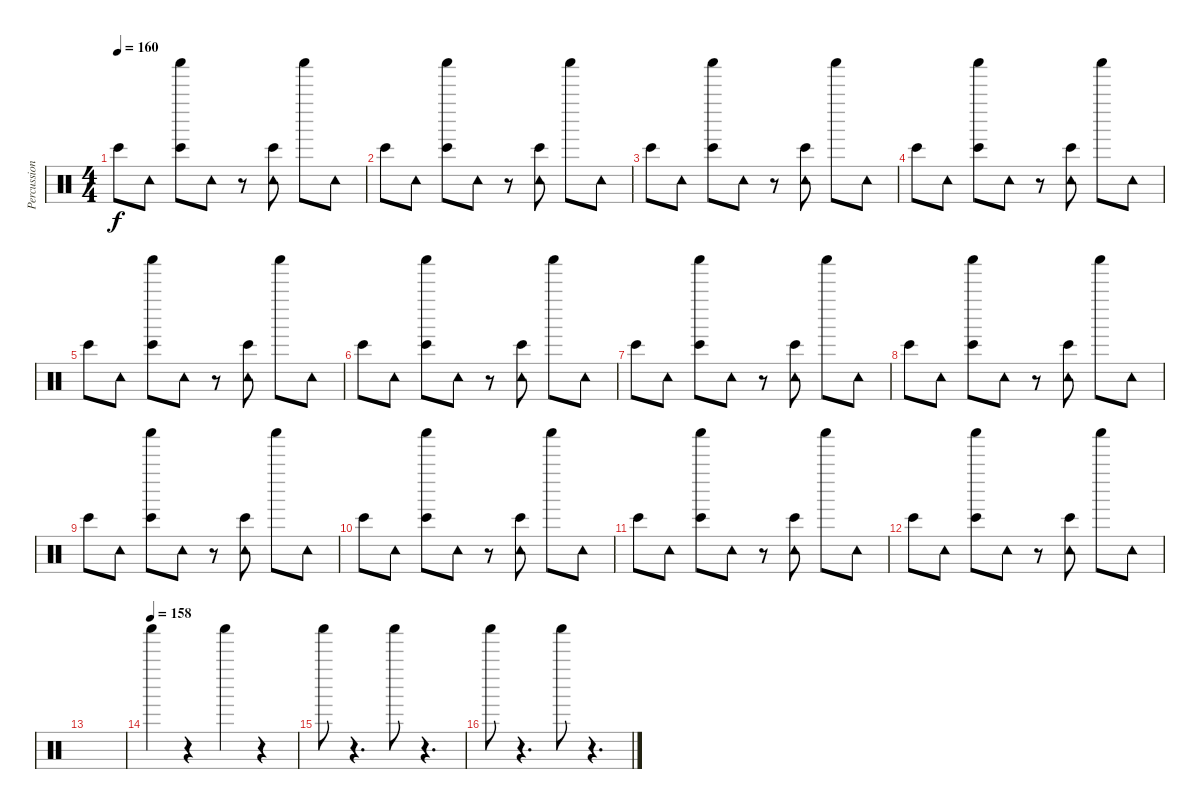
\track ("Percussions" "Percussion") {instrument percussion}
\staff {score}
\articulation defaults
\ts (4 4)
\tempo 160
\clef neutral
\ks c "Bongo High (hit)".8{dy f} "Tambourine (hit)".8
("Bongo High (hit)" "Shaker (hit)").8 "Tambourine (hit)".8 r.8 ("Bongo High (hit)" "Tambourine (hit)").8 "Shaker (hit)".8 "Tambourine (hit)".8 |
"Bongo High (hit)".8 "Tambourine (hit)".8 ("Bongo High (hit)" "Shaker (hit)").8 "Tambourine (hit)".8 r.8 ("Bongo High (hit)" "Tambourine (hit)").8 "Shaker (hit)".8 "Tambourine (hit)".8 |
"Bongo High (hit)".8 "Tambourine (hit)".8 ("Bongo High (hit)" "Shaker (hit)").8 "Tambourine (hit)".8 r.8 ("Bongo High (hit)" "Tambourine (hit)").8 "Shaker (hit)".8 "Tambourine (hit)".8 |
"Bongo High (hit)".8 "Tambourine (hit)".8 ("Bongo High (hit)" "Shaker (hit)").8 "Tambourine (hit)".8 r.8 ("Bongo High (hit)" "Tambourine (hit)").8 "Shaker (hit)".8 "Tambourine (hit)".8 |
"Bongo High (hit)".8 "Tambourine (hit)".8 ("Bongo High (hit)" "Shaker (hit)").8 "Tambourine (hit)".8 r.8 ("Bongo High (hit)" "Tambourine (hit)").8 "Shaker (hit)".8 "Tambourine (hit)".8 |
"Bongo High (hit)".8 "Tambourine (hit)".8 ("Bongo High (hit)" "Shaker (hit)").8 "Tambourine (hit)".8 r.8 ("Bongo High (hit)" "Tambourine (hit)").8 "Shaker (hit)".8 "Tambourine (hit)".8 |
"Bongo High (hit)".8 "Tambourine (hit)".8 ("Bongo High (hit)" "Shaker (hit)").8 "Tambourine (hit)".8 r.8 ("Bongo High (hit)" "Tambourine (hit)").8 "Shaker (hit)".8 "Tambourine (hit)".8 |
"Bongo High (hit)".8 "Tambourine (hit)".8 ("Bongo High (hit)" "Shaker (hit)").8 "Tambourine (hit)".8 r.8 ("Bongo High (hit)" "Tambourine (hit)").8 "Shaker (hit)".8 "Tambourine (hit)".8 |
"Bongo High (hit)".8 "Tambourine (hit)".8 ("Bongo High (hit)" "Shaker (hit)").8 "Tambourine (hit)".8 r.8 ("Bongo High (hit)" "Tambourine (hit)").8 "Shaker (hit)".8 "Tambourine (hit)".8 |
"Bongo High (hit)".8 "Tambourine (hit)".8 ("Bongo High (hit)" "Shaker (hit)").8 "Tambourine (hit)".8 r.8 ("Bongo High (hit)" "Tambourine (hit)").8 "Shaker (hit)".8 "Tambourine (hit)".8 |
"Bongo High (hit)".8 "Tambourine (hit)".8 ("Bongo High (hit)" "Shaker (hit)").8 "Tambourine (hit)".8 r.8 ("Bongo High (hit)" "Tambourine (hit)").8 "Shaker (hit)".8 "Tambourine (hit)".8 |
"Bongo High (hit)".8 "Tambourine (hit)".8 ("Bongo High (hit)" "Shaker (hit)").8 "Tambourine (hit)".8 r.8 ("Bongo High (hit)" "Tambourine (hit)").8 "Shaker (hit)".8 "Tambourine (hit)".8 |
|
\tempo (158)
"Shaker (hit)".4 r.4 "Shaker (hit)".4 r.4 |
"Shaker (hit)".8 r.4{d} "Shaker (hit)".8 r.4{d} |
"Shaker (hit)".8 r.4{d} "Shaker (hit)".8 r.4{d}
